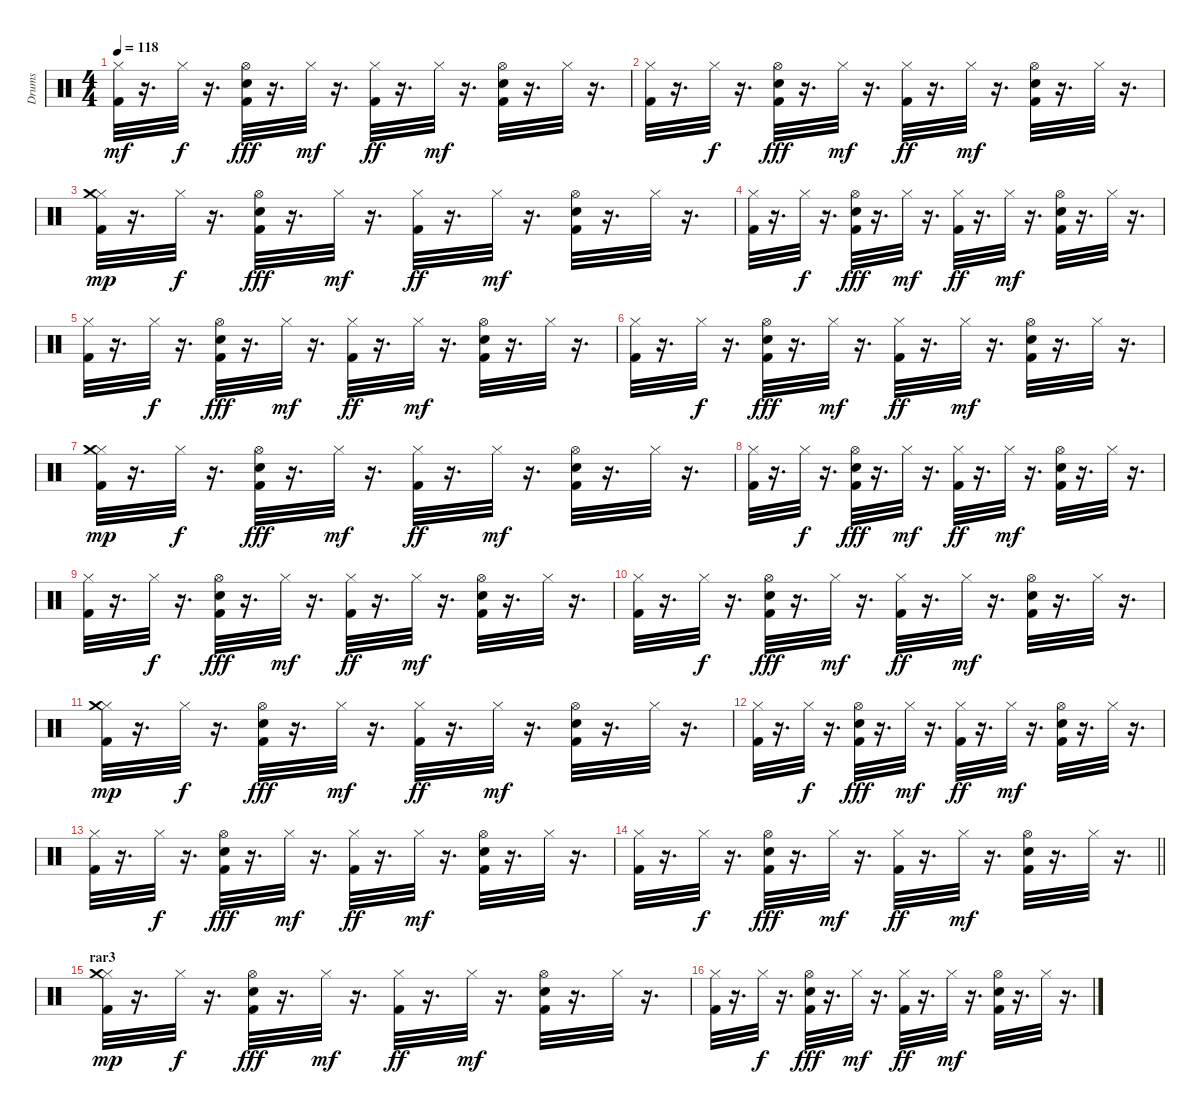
\track ("Drums" "Drums") {instrument percussion}
\staff {score}
\articulation defaults
\ts (4 4)
\tempo 118
\clef neutral
\ks c
("Kick (hit) 2" "Hi-Hat (closed)").32{dy mf} r.16{d} "Hi-Hat (closed)".32{dy f} r.16{d} ("Kick (hit) 2" "Electric Snare (hit)" "Hi-Hat (open)").32{dy fff} r.16{d} "Hi-Hat (closed)".32{dy mf} r.16{d} ("Kick (hit) 2" "Hi-Hat (closed)").32{dy ff} r.16{d} "Hi-Hat (closed)".32{dy mf} r.16{d} ("Kick (hit) 2" "Electric Snare (hit)" "Hi-Hat (open)").32 r.16{d} "Hi-Hat (closed)".32 r.16{d} |
("Kick (hit) 2" "Hi-Hat (closed)").32 r.16{d} "Hi-Hat (closed)".32{dy f} r.16{d} ("Kick (hit) 2" "Electric Snare (hit)" "Hi-Hat (open)").32{dy fff} r.16{d} "Hi-Hat (closed)".32{dy mf} r.16{d} ("Kick (hit) 2" "Hi-Hat (closed)").32{dy ff} r.16{d} "Hi-Hat (closed)".32{dy mf} r.16{d} ("Kick (hit) 2" "Electric Snare (hit)" "Hi-Hat (open)").32 r.16{d} "Hi-Hat (closed)".32 r.16{d} |
("Kick (hit) 2" "Hi-Hat (closed)" "Crash medium (hit)").32{dy mp} r.16{d} "Hi-Hat (closed)".32{dy f} r.16{d} ("Kick (hit) 2" "Electric Snare (hit)" "Hi-Hat (open)").32{dy fff} r.16{d} "Hi-Hat (closed)".32{dy mf} r.16{d} ("Kick (hit) 2" "Hi-Hat (closed)").32{dy ff} r.16{d} "Hi-Hat (closed)".32{dy mf} r.16{d} ("Kick (hit) 2" "Electric Snare (hit)" "Hi-Hat (open)").32 r.16{d} "Hi-Hat (closed)".32 r.16{d} |
("Kick (hit) 2" "Hi-Hat (closed)").32 r.16{d} "Hi-Hat (closed)".32{dy f} r.16{d} ("Kick (hit) 2" "Electric Snare (hit)" "Hi-Hat (open)").32{dy fff} r.16{d} "Hi-Hat (closed)".32{dy mf} r.16{d} ("Kick (hit) 2" "Hi-Hat (closed)").32{dy ff} r.16{d} "Hi-Hat (closed)".32{dy mf} r.16{d} ("Kick (hit) 2" "Electric Snare (hit)" "Hi-Hat (open)").32 r.16{d} "Hi-Hat (closed)".32 r.16{d} |
("Kick (hit) 2" "Hi-Hat (closed)").32 r.16{d} "Hi-Hat (closed)".32{dy f} r.16{d} ("Kick (hit) 2" "Electric Snare (hit)" "Hi-Hat (open)").32{dy fff} r.16{d} "Hi-Hat (closed)".32{dy mf} r.16{d} ("Kick (hit) 2" "Hi-Hat (closed)").32{dy ff} r.16{d} "Hi-Hat (closed)".32{dy mf} r.16{d} ("Kick (hit) 2" "Electric Snare (hit)" "Hi-Hat (open)").32 r.16{d} "Hi-Hat (closed)".32 r.16{d} |
("Kick (hit) 2" "Hi-Hat (closed)").32 r.16{d} "Hi-Hat (closed)".32{dy f} r.16{d} ("Kick (hit) 2" "Electric Snare (hit)" "Hi-Hat (open)").32{dy fff} r.16{d} "Hi-Hat (closed)".32{dy mf} r.16{d} ("Kick (hit) 2" "Hi-Hat (closed)").32{dy ff} r.16{d} "Hi-Hat (closed)".32{dy mf} r.16{d} ("Kick (hit) 2" "Electric Snare (hit)" "Hi-Hat (open)").32 r.16{d} "Hi-Hat (closed)".32 r.16{d} |
("Kick (hit) 2" "Hi-Hat (closed)" "Crash medium (hit)").32{dy mp} r.16{d} "Hi-Hat (closed)".32{dy f} r.16{d} ("Kick (hit) 2" "Electric Snare (hit)" "Hi-Hat (open)").32{dy fff} r.16{d} "Hi-Hat (closed)".32{dy mf} r.16{d} ("Kick (hit) 2" "Hi-Hat (closed)").32{dy ff} r.16{d} "Hi-Hat (closed)".32{dy mf} r.16{d} ("Kick (hit) 2" "Electric Snare (hit)" "Hi-Hat (open)").32 r.16{d} "Hi-Hat (closed)".32 r.16{d} |
("Kick (hit) 2" "Hi-Hat (closed)").32 r.16{d} "Hi-Hat (closed)".32{dy f} r.16{d} ("Kick (hit) 2" "Electric Snare (hit)" "Hi-Hat (open)").32{dy fff} r.16{d} "Hi-Hat (closed)".32{dy mf} r.16{d} ("Kick (hit) 2" "Hi-Hat (closed)").32{dy ff} r.16{d} "Hi-Hat (closed)".32{dy mf} r.16{d} ("Kick (hit) 2" "Electric Snare (hit)" "Hi-Hat (open)").32 r.16{d} "Hi-Hat (closed)".32 r.16{d} |
("Kick (hit) 2" "Hi-Hat (closed)").32 r.16{d} "Hi-Hat (closed)".32{dy f} r.16{d} ("Kick (hit) 2" "Electric Snare (hit)" "Hi-Hat (open)").32{dy fff} r.16{d} "Hi-Hat (closed)".32{dy mf} r.16{d} ("Kick (hit) 2" "Hi-Hat (closed)").32{dy ff} r.16{d} "Hi-Hat (closed)".32{dy mf} r.16{d} ("Kick (hit) 2" "Electric Snare (hit)" "Hi-Hat (open)").32 r.16{d} "Hi-Hat (closed)".32 r.16{d} |
("Kick (hit) 2" "Hi-Hat (closed)").32 r.16{d} "Hi-Hat (closed)".32{dy f} r.16{d} ("Kick (hit) 2" "Electric Snare (hit)" "Hi-Hat (open)").32{dy fff} r.16{d} "Hi-Hat (closed)".32{dy mf} r.16{d} ("Kick (hit) 2" "Hi-Hat (closed)").32{dy ff} r.16{d} "Hi-Hat (closed)".32{dy mf} r.16{d} ("Kick (hit) 2" "Electric Snare (hit)" "Hi-Hat (open)").32 r.16{d} "Hi-Hat (closed)".32 r.16{d} |
("Kick (hit) 2" "Hi-Hat (closed)" "Crash medium (hit)").32{dy mp} r.16{d} "Hi-Hat (closed)".32{dy f} r.16{d} ("Kick (hit) 2" "Electric Snare (hit)" "Hi-Hat (open)").32{dy fff} r.16{d} "Hi-Hat (closed)".32{dy mf} r.16{d} ("Kick (hit) 2" "Hi-Hat (closed)").32{dy ff} r.16{d} "Hi-Hat (closed)".32{dy mf} r.16{d} ("Kick (hit) 2" "Electric Snare (hit)" "Hi-Hat (open)").32 r.16{d} "Hi-Hat (closed)".32 r.16{d} |
("Kick (hit) 2" "Hi-Hat (closed)").32 r.16{d} "Hi-Hat (closed)".32{dy f} r.16{d} ("Kick (hit) 2" "Electric Snare (hit)" "Hi-Hat (open)").32{dy fff} r.16{d} "Hi-Hat (closed)".32{dy mf} r.16{d} ("Kick (hit) 2" "Hi-Hat (closed)").32{dy ff} r.16{d} "Hi-Hat (closed)".32{dy mf} r.16{d} ("Kick (hit) 2" "Electric Snare (hit)" "Hi-Hat (open)").32 r.16{d} "Hi-Hat (closed)".32 r.16{d} |
("Kick (hit) 2" "Hi-Hat (closed)").32 r.16{d} "Hi-Hat (closed)".32{dy f} r.16{d} ("Kick (hit) 2" "Electric Snare (hit)" "Hi-Hat (open)").32{dy fff} r.16{d} "Hi-Hat (closed)".32{dy mf} r.16{d} ("Kick (hit) 2" "Hi-Hat (closed)").32{dy ff} r.16{d} "Hi-Hat (closed)".32{dy mf} r.16{d} ("Kick (hit) 2" "Electric Snare (hit)" "Hi-Hat (open)").32 r.16{d} "Hi-Hat (closed)".32 r.16{d} |
\barLineRight lightlight
("Kick (hit) 2" "Hi-Hat (closed)").32 r.16{d} "Hi-Hat (closed)".32{dy f} r.16{d} ("Kick (hit) 2" "Electric Snare (hit)" "Hi-Hat (open)").32{dy fff} r.16{d} "Hi-Hat (closed)".32{dy mf} r.16{d} ("Kick (hit) 2" "Hi-Hat (closed)").32{dy ff} r.16{d} "Hi-Hat (closed)".32{dy mf} r.16{d} ("Kick (hit) 2" "Electric Snare (hit)" "Hi-Hat (open)").32 r.16{d} "Hi-Hat (closed)".32 r.16{d} |
\section ("" "rar3")
("Kick (hit) 2" "Hi-Hat (closed)" "Crash medium (hit)").32{dy mp} r.16{d} "Hi-Hat (closed)".32{dy f} r.16{d} ("Kick (hit) 2" "Electric Snare (hit)" "Hi-Hat (open)").32{dy fff} r.16{d} "Hi-Hat (closed)".32{dy mf} r.16{d} ("Kick (hit) 2" "Hi-Hat (closed)").32{dy ff} r.16{d} "Hi-Hat (closed)".32{dy mf} r.16{d} ("Kick (hit) 2" "Electric Snare (hit)" "Hi-Hat (open)").32 r.16{d} "Hi-Hat (closed)".32 r.16{d} |
("Kick (hit) 2" "Hi-Hat (closed)").32 r.16{d} "Hi-Hat (closed)".32{dy f} r.16{d} ("Kick (hit) 2" "Electric Snare (hit)" "Hi-Hat (open)").32{dy fff} r.16{d} "Hi-Hat (closed)".32{dy mf} r.16{d} ("Kick (hit) 2" "Hi-Hat (closed)").32{dy ff} r.16{d} "Hi-Hat (closed)".32{dy mf} r.16{d} ("Kick (hit) 2" "Electric Snare (hit)" "Hi-Hat (open)").32 r.16{d} "Hi-Hat (closed)".32 r.16{d}
